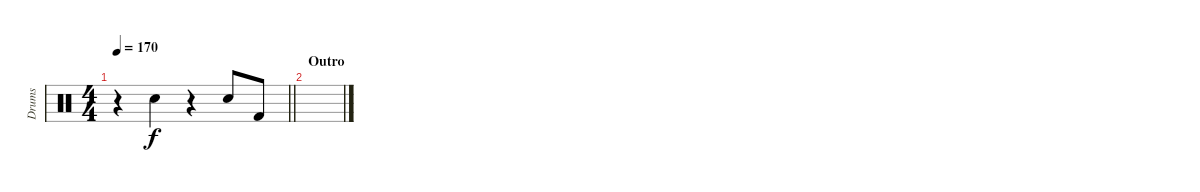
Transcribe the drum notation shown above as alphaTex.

\track ("Drums" "Drums") {instrument percussion}
\staff {score}
\articulation defaults
\ts (4 4)
\tempo 170
\clef neutral
\barLineRight lightlight
\ks c
r.4{dy f} "Hand Clap (hit)".4 r.4 "Hand Clap (hit)".8 "Kick (hit) 2".8 |
\section ("" "Outro")
